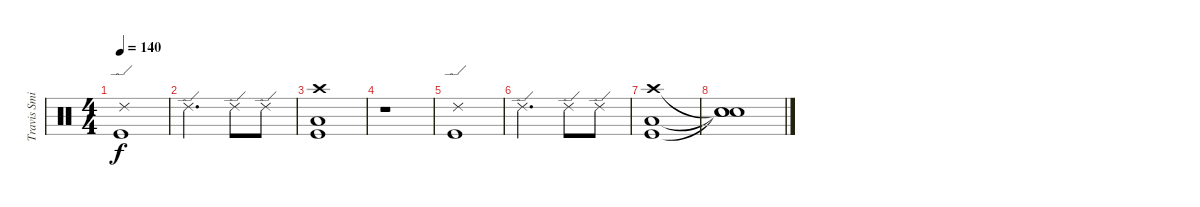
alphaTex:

\track ("Travis Smith" "Travis Smi") {instrument percussion}
\staff {score}
\articulation defaults
\ts (4 4)
\tempo 140
\clef neutral
\ks c
("Ride (edge) 2" "Kick (hit)").1{dy f} |
"Ride (edge) 2".2{d} "Ride (edge) 2".8 "Ride (edge) 2".8 |
("Crash high (hit)" "Low Floor Tom (hit)" "Kick (hit)").1 |
r.1 |
("Ride (edge) 2" "Kick (hit)").1{volume 0} |
"Ride (edge) 2".2{d} "Ride (edge) 2".8 "Ride (edge) 2".8 |
("Crash high (hit)" "Low Floor Tom (hit)" "Kick (hit)").1 |
("Snare (hit)"{t} "Snare (hit)"{t} "Snare (hit)"{t}).1
